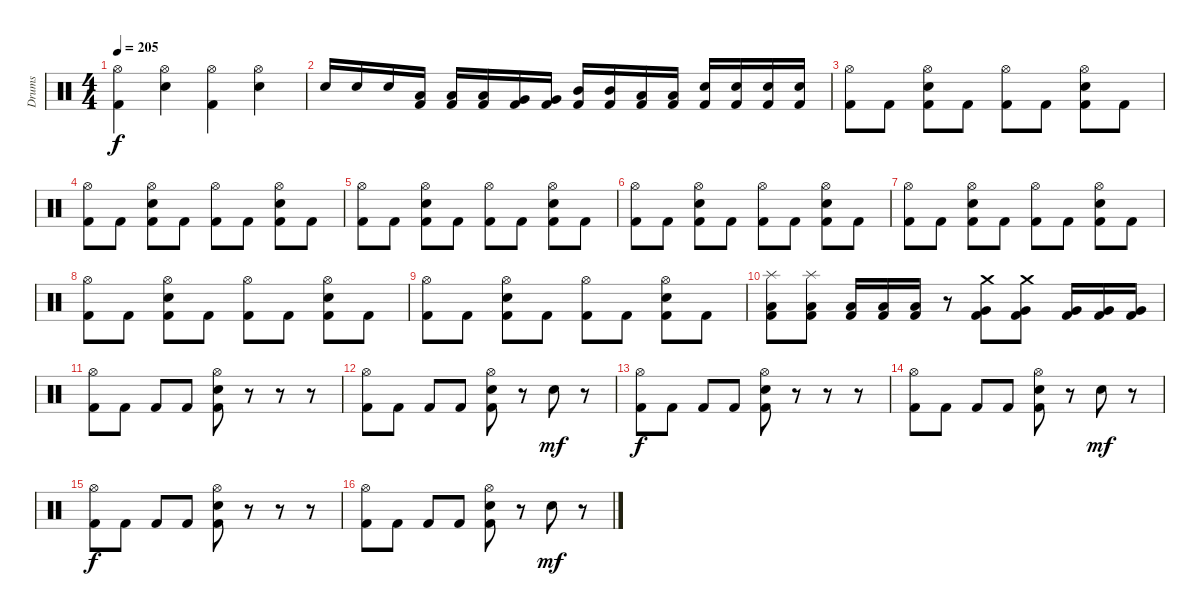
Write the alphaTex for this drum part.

\track ("Drums" "Drums") {instrument percussion}
\staff {score}
\articulation defaults
\ts (4 4)
\tempo 205
\clef neutral
\ks c
("Hi-Hat (open)" "Kick (hit) 2").4{dy f} ("Hi-Hat (open)" "Electric Snare (hit)").4 ("Hi-Hat (open)" "Kick (hit) 2").4 ("Hi-Hat (open)" "Electric Snare (hit)").4 |
"Electric Snare (hit)".16 "Electric Snare (hit)".16 "Electric Snare (hit)".16 ("Low Floor Tom (hit)" "Kick (hit) 2").16 ("Low Tom (hit)" "Kick (hit) 2").16 ("Low Tom (hit)" "Kick (hit) 2").16 ("Very Low Tom (hit)" "Kick (hit) 2").16 ("Very Low Tom (hit)" "Kick (hit) 2").16 ("Mid Tom (hit)" "Kick (hit) 2").16 ("Mid Tom (hit)" "Kick (hit) 2").16 ("Low Floor Tom (hit)" "Kick (hit) 2").16 ("Low Floor Tom (hit)" "Kick (hit) 2").16 ("Electric Snare (hit)" "Kick (hit) 2").16 ("Electric Snare (hit)" "Kick (hit) 2").16 ("Electric Snare (hit)" "Kick (hit) 2").16 ("Electric Snare (hit)" "Kick (hit) 2").16 |
("Hi-Hat (open)" "Kick (hit) 2").8 "Kick (hit) 2".8 ("Hi-Hat (open)" "Electric Snare (hit)" "Kick (hit) 2").8 "Kick (hit) 2".8 ("Hi-Hat (open)" "Kick (hit) 2").8 "Kick (hit) 2".8 ("Hi-Hat (open)" "Electric Snare (hit)" "Kick (hit) 2").8 "Kick (hit) 2".8 |
("Hi-Hat (open)" "Kick (hit) 2").8 "Kick (hit) 2".8 ("Hi-Hat (open)" "Electric Snare (hit)" "Kick (hit) 2").8 "Kick (hit) 2".8 ("Hi-Hat (open)" "Kick (hit) 2").8 "Kick (hit) 2".8 ("Hi-Hat (open)" "Electric Snare (hit)" "Kick (hit) 2").8 "Kick (hit) 2".8 |
("Hi-Hat (open)" "Kick (hit) 2").8 "Kick (hit) 2".8 ("Hi-Hat (open)" "Electric Snare (hit)" "Kick (hit) 2").8 "Kick (hit) 2".8 ("Hi-Hat (open)" "Kick (hit) 2").8 "Kick (hit) 2".8 ("Hi-Hat (open)" "Electric Snare (hit)" "Kick (hit) 2").8 "Kick (hit) 2".8 |
("Hi-Hat (open)" "Kick (hit) 2").8 "Kick (hit) 2".8 ("Hi-Hat (open)" "Electric Snare (hit)" "Kick (hit) 2").8 "Kick (hit) 2".8 ("Hi-Hat (open)" "Kick (hit) 2").8 "Kick (hit) 2".8 ("Hi-Hat (open)" "Electric Snare (hit)" "Kick (hit) 2").8 "Kick (hit) 2".8 |
("Hi-Hat (open)" "Kick (hit) 2").8 "Kick (hit) 2".8 ("Hi-Hat (open)" "Electric Snare (hit)" "Kick (hit) 2").8 "Kick (hit) 2".8 ("Hi-Hat (open)" "Kick (hit) 2").8 "Kick (hit) 2".8 ("Hi-Hat (open)" "Electric Snare (hit)" "Kick (hit) 2").8 "Kick (hit) 2".8 |
("Hi-Hat (open)" "Kick (hit) 2").8 "Kick (hit) 2".8 ("Hi-Hat (open)" "Electric Snare (hit)" "Kick (hit) 2").8 "Kick (hit) 2".8 ("Hi-Hat (open)" "Kick (hit) 2").8 "Kick (hit) 2".8 ("Hi-Hat (open)" "Electric Snare (hit)" "Kick (hit) 2").8 "Kick (hit) 2".8 |
("Hi-Hat (open)" "Kick (hit) 2").8 "Kick (hit) 2".8 ("Hi-Hat (open)" "Electric Snare (hit)" "Kick (hit) 2").8 "Kick (hit) 2".8 ("Hi-Hat (open)" "Kick (hit) 2").8 "Kick (hit) 2".8 ("Hi-Hat (open)" "Electric Snare (hit)" "Kick (hit) 2").8 "Kick (hit) 2".8 |
("Splash (hit)" "Low Tom (hit)" "Kick (hit) 2").8 ("Splash (hit)" "Low Tom (hit)" "Kick (hit) 2").8 ("Low Tom (hit)" "Kick (hit) 2").16 ("Low Tom (hit)" "Kick (hit) 2").16 ("Low Tom (hit)" "Kick (hit) 2").16 r.8 ("Crash medium (hit)" "Very Low Tom (hit)" "Kick (hit) 2").8 ("Crash medium (hit)" "Very Low Tom (hit)" "Kick (hit) 2").8 ("Very Low Tom (hit)" "Kick (hit) 2").16 ("Very Low Tom (hit)" "Kick (hit) 2").16 ("Very Low Tom (hit)" "Kick (hit) 2").16 |
("Hi-Hat (open)" "Kick (hit) 2").8 "Kick (hit) 2".8 "Kick (hit) 2".8 "Kick (hit) 2".8 ("Hi-Hat (open)" "Electric Snare (hit)" "Kick (hit) 2").8 r.8 r.8 r.8 |
("Hi-Hat (open)" "Kick (hit) 2").8 "Kick (hit) 2".8 "Kick (hit) 2".8 "Kick (hit) 2".8 ("Hi-Hat (open)" "Electric Snare (hit)" "Kick (hit) 2").8 r.8 "Electric Snare (hit)".8{dy mf} r.8 |
("Hi-Hat (open)" "Kick (hit) 2").8{dy f} "Kick (hit) 2".8 "Kick (hit) 2".8 "Kick (hit) 2".8 ("Hi-Hat (open)" "Electric Snare (hit)" "Kick (hit) 2").8 r.8 r.8 r.8 |
("Hi-Hat (open)" "Kick (hit) 2").8 "Kick (hit) 2".8 "Kick (hit) 2".8 "Kick (hit) 2".8 ("Hi-Hat (open)" "Electric Snare (hit)" "Kick (hit) 2").8 r.8 "Electric Snare (hit)".8{dy mf} r.8 |
("Hi-Hat (open)" "Kick (hit) 2").8{dy f} "Kick (hit) 2".8 "Kick (hit) 2".8 "Kick (hit) 2".8 ("Hi-Hat (open)" "Electric Snare (hit)" "Kick (hit) 2").8 r.8 r.8 r.8 |
("Hi-Hat (open)" "Kick (hit) 2").8 "Kick (hit) 2".8 "Kick (hit) 2".8 "Kick (hit) 2".8 ("Hi-Hat (open)" "Electric Snare (hit)" "Kick (hit) 2").8 r.8 "Electric Snare (hit)".8{dy mf} r.8
